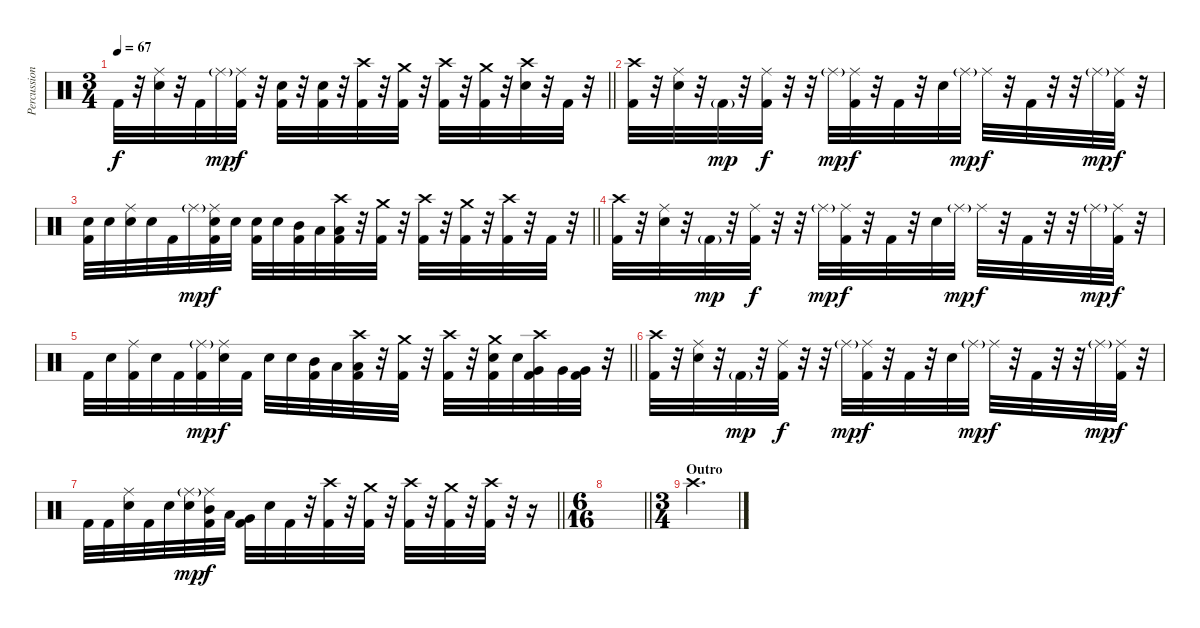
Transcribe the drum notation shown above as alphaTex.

\track ("Percussions" "Percussion") {instrument percussion}
\staff {score}
\articulation defaults
\ts (3 4)
\tempo 67
\clef neutral
\barLineRight lightlight
\ks c "Kick (hit) 2".32{dy f}
r.32 ("Ride (middle)" "Electric Snare (hit)").32 r.32 "Kick (hit) 2".32 "Ride (middle)"{g}.32{dy mp} ("Ride (middle)" "Kick (hit) 2").32{dy f} r.32 ("Electric Snare (hit)" "Kick (hit) 2").32 r.32 ("Electric Snare (hit)" "Kick (hit) 2").32 r.32 ("Crash high (hit)" "Kick (hit) 2").32 r.32 ("Crash medium (hit)" "Kick (hit) 2").32 r.32 ("Crash high (hit)" "Kick (hit) 2").32 r.32 ("Crash medium (hit)" "Kick (hit) 2").32 r.32 ("Crash high (hit)" "Electric Snare (hit)").32 r.32 "Kick (hit) 2".32 r.32 |
("Crash high (hit)" "Kick (hit) 2").32 r.32 ("Ride (middle)" "Electric Snare (hit)").32 r.32 "Kick (hit) 2"{g}.32{dy mp} r.32 ("Ride (middle)" "Kick (hit) 2").32{dy f} r.32 r.32 "Ride (middle)"{g}.32{dy mp} ("Ride (middle)" "Kick (hit) 2").32{dy f} r.32 "Kick (hit) 2".32 r.32 "Electric Snare (hit)".32 "Ride (middle)"{g}.32{dy mp} "Ride (middle)".32{dy f} r.32 "Kick (hit) 2".32 r.32 r.32 "Ride (middle)"{g}.32{dy mp} ("Ride (middle)" "Kick (hit) 2").32{dy f} r.32 |
\barLineRight lightlight
("Electric Snare (hit)" "Kick (hit) 2").32 "Electric Snare (hit)".32 ("Ride (middle)" "Electric Snare (hit)").32 "Electric Snare (hit)".32 "Kick (hit) 2".32 "Ride (middle)"{g}.32{dy mp} ("Ride (middle)" "Electric Snare (hit)" "Kick (hit) 2").32{dy f} "Electric Snare (hit)".32 ("Electric Snare (hit)" "Kick (hit) 2").32 "Electric Snare (hit)".32 ("Mid Tom (hit)" "Kick (hit) 2").32 "Low Tom (hit)".32 ("Crash high (hit)" "Low Floor Tom (hit)" "Kick (hit) 2").32 r.32 ("Crash medium (hit)" "Kick (hit) 2").32 r.32 ("Crash high (hit)" "Kick (hit) 2").32 r.32 ("Crash medium (hit)" "Kick (hit) 2").32 r.32 ("Crash high (hit)" "Kick (hit) 2").32 r.32 "Kick (hit) 2".32 r.32 |
("Crash high (hit)" "Kick (hit) 2").32 r.32 ("Ride (middle)" "Electric Snare (hit)").32 r.32 "Kick (hit) 2"{g}.32{dy mp} r.32 ("Ride (middle)" "Kick (hit) 2").32{dy f} r.32 r.32 "Ride (middle)"{g}.32{dy mp} ("Ride (middle)" "Kick (hit) 2").32{dy f} r.32 "Kick (hit) 2".32 r.32 "Electric Snare (hit)".32 "Ride (middle)"{g}.32{dy mp} "Ride (middle)".32{dy f} r.32 "Kick (hit) 2".32 r.32 r.32 "Ride (middle)"{g}.32{dy mp} ("Ride (middle)" "Kick (hit) 2").32{dy f} r.32 |
\barLineRight lightlight "Kick (hit) 2".32 "Electric Snare (hit)".32
("Ride (middle)" "Kick (hit) 2").32 "Electric Snare (hit)".32 "Kick (hit) 2".32 ("Ride (middle)"{g} "Kick (hit) 2").32{dy mp} ("Ride (middle)" "Electric Snare (hit)").32{dy f} "Kick (hit) 2".32 "Electric Snare (hit)".32 "Electric Snare (hit)".32 ("Mid Tom (hit)" "Kick (hit) 2").32 "Low Tom (hit)".32 ("Crash high (hit)" "Low Floor Tom (hit)" "Kick (hit) 2").32 r.32 ("Crash medium (hit)" "Kick (hit) 2").32 r.32 ("Crash high (hit)" "Kick (hit) 2").32 r.32 ("Crash medium (hit)" "Electric Snare (hit)" "Kick (hit) 2").32 "Electric Snare (hit)".32 ("Crash high (hit)" "Very Low Tom (hit)" "Kick (hit) 2").32 "Very Low Tom (hit)".32 ("Very Low Tom (hit)" "Kick (hit) 2").32 r.32 |
("Crash high (hit)" "Kick (hit) 2").32 r.32 ("Ride (middle)" "Electric Snare (hit)").32 r.32 "Kick (hit) 2"{g}.32{dy mp} r.32 ("Ride (middle)" "Kick (hit) 2").32{dy f} r.32 r.32 "Ride (middle)"{g}.32{dy mp} ("Ride (middle)" "Kick (hit) 2").32{dy f} r.32 "Kick (hit) 2".32 r.32 "Electric Snare (hit)".32 "Ride (middle)"{g}.32{dy mp} "Ride (middle)".32{dy f} r.32 "Kick (hit) 2".32 r.32 r.32 "Ride (middle)"{g}.32{dy mp} ("Ride (middle)" "Kick (hit) 2").32{dy f} r.32 |
\barLineRight lightlight "Kick (hit) 2".32 "Kick (hit) 2".32
("Ride (middle)" "Electric Snare (hit)").32 "Kick (hit) 2".32 "Electric Snare (hit)".32 ("Ride (middle)"{g} "Electric Snare (hit)").32{dy mp} ("Ride (middle)" "Mid Tom (hit)" "Kick (hit) 2").32{dy f} "Low Tom (hit)".32 ("Very Low Tom (hit)" "Kick (hit) 2").32 "Electric Snare (hit)".32 "Kick (hit) 2".32 r.32 ("Crash high (hit)" "Kick (hit) 2").32 r.32 ("Crash medium (hit)" "Kick (hit) 2").32 r.32 ("Crash high (hit)" "Kick (hit) 2").32 r.32 ("Crash medium (hit)" "Kick (hit) 2").32 r.32 ("Crash high (hit)" "Kick (hit) 2").32 r.32 r.16 |
\ts (6 16)
\barLineRight lightlight
|
\ts (3 4)
\section ("" "Outro")
"Crash high (hit)".2{d}
